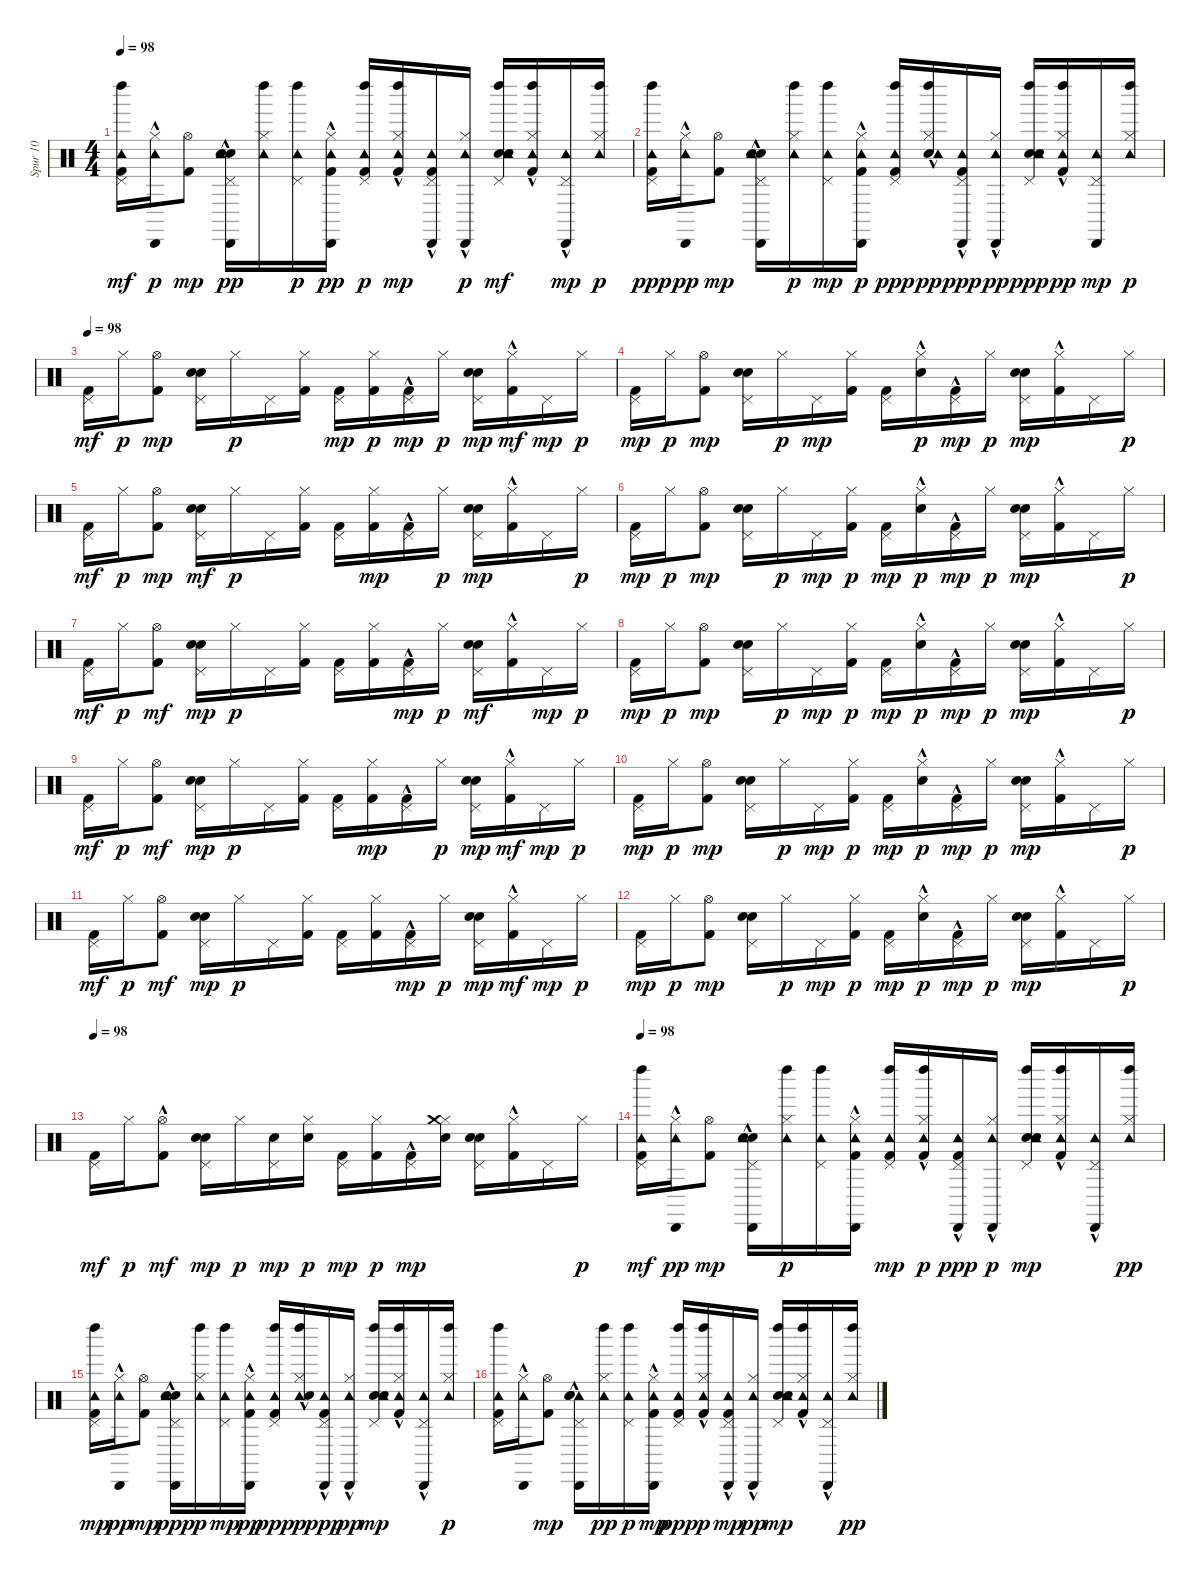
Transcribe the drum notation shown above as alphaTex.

\track ("Spur 10" "Spur 10") {instrument percussion}
\staff {score}
\articulation defaults
\ts (4 4)
\tempo 98
\clef neutral
\ks c
("Left Maraca (hit)" "Tambourine (hit)" "Kick (hit) 2" "Pedal Hi-Hat (hit)").16{dy mf} ("Tambourine (hit)"{hac} "Cabasa (hit)"{hac} "Hi-Hat (closed)").16{dy p} ("Kick (hit) 2" "Hi-Hat (open)").8{dy mp} ("Hand Clap (hit)" "Snare (hit) 2" "Pedal Hi-Hat (hit)" "Tambourine (hit)" "Cabasa (hit)"{hac}).16{dy pp} ("Hi-Hat (closed)" "Left Maraca (hit)" "Tambourine (hit)").16 ("Left Maraca (hit)" "Tambourine (hit)" "Pedal Hi-Hat (hit)").16{dy p} ("Kick (hit) 2" "Cabasa (hit)"{hac} "Hi-Hat (closed)" "Tambourine (hit)").16{dy pp} ("Kick (hit) 2" "Tambourine (hit)" "Pedal Hi-Hat (hit)" "Left Maraca (hit)").16{dy p} ("Left Maraca (hit)"{hac} "Hi-Hat (closed)" "Tambourine (hit)" "Kick (hit) 2").16{dy mp} ("Cabasa (hit)" "Kick (hit) 2"{hac} "Tambourine (hit)" "Pedal Hi-Hat (hit)").16 ("Tambourine (hit)" "Cabasa (hit)"{hac} "Hi-Hat (closed)").16{dy p} ("Left Maraca (hit)" "Hand Clap (hit)" "Tambourine (hit)" "Pedal Hi-Hat (hit)" "Snare (hit) 2").16{dy mf} ("Left Maraca (hit)" "Tambourine (hit)" "Hi-Hat (closed)" "Kick (hit) 2"{hac}).16 ("Tambourine (hit)" "Cabasa (hit)"{hac} "Pedal Hi-Hat (hit)").16{dy mp} ("Tambourine (hit)" "Hi-Hat (closed)" "Left Maraca (hit)").16{dy p} |
("Kick (hit) 2" "Left Maraca (hit)" "Pedal Hi-Hat (hit)" "Tambourine (hit)").16{dy ppp} ("Tambourine (hit)"{hac} "Hi-Hat (closed)" "Cabasa (hit)"{hac}).16{dy pp} ("Hi-Hat (open)" "Kick (hit) 2").8{dy mp} ("Snare (hit) 2" "Cabasa (hit)"{hac} "Hand Clap (hit)" "Tambourine (hit)" "Pedal Hi-Hat (hit)").16 ("Left Maraca (hit)" "Tambourine (hit)" "Hi-Hat (closed)").16{dy p} ("Left Maraca (hit)" "Tambourine (hit)" "Pedal Hi-Hat (hit)").16{dy mp} ("Cabasa (hit)"{hac} "Kick (hit) 2" "Tambourine (hit)" "Hi-Hat (closed)").16{dy p} ("Left Maraca (hit)" "Kick (hit) 2" "Pedal Hi-Hat (hit)" "Tambourine (hit)").16{dy ppp} ("Snare (hit) 2"{hac} "Left Maraca (hit)"{hac} "Hi-Hat (closed)" "Tambourine (hit)").16{dy pp} ("Kick (hit) 2"{hac} "Cabasa (hit)" "Pedal Hi-Hat (hit)" "Tambourine (hit)").16{dy ppp} ("Cabasa (hit)"{hac} "Hi-Hat (closed)" "Tambourine (hit)").16{dy pp} ("Hand Clap (hit)" "Left Maraca (hit)" "Snare (hit) 2" "Pedal Hi-Hat (hit)" "Tambourine (hit)").16{dy ppp} ("Hi-Hat (closed)" "Left Maraca (hit)" "Kick (hit) 2"{hac} "Tambourine (hit)").16{dy pp} ("Cabasa (hit)" "Tambourine (hit)" "Pedal Hi-Hat (hit)").16{dy mp} ("Left Maraca (hit)" "Tambourine (hit)" "Hi-Hat (closed)").16{dy p} |
\tempo 98
("Kick (hit) 2" "Pedal Hi-Hat (hit)").16{dy mf} "Hi-Hat (closed)".16{dy p} ("Kick (hit) 2" "Hi-Hat (open)").8{dy mp} ("Snare (hit) 2" "Pedal Hi-Hat (hit)" "Hand Clap (hit)").16 "Hi-Hat (closed)".16{dy p} "Pedal Hi-Hat (hit)".16 ("Kick (hit) 2" "Hi-Hat (closed)").16 ("Pedal Hi-Hat (hit)" "Kick (hit) 2").16{dy mp} ("Kick (hit) 2" "Hi-Hat (closed)").16{dy p} ("Kick (hit) 2"{hac} "Pedal Hi-Hat (hit)").16{dy mp} "Hi-Hat (closed)".16{dy p} ("Snare (hit) 2" "Pedal Hi-Hat (hit)" "Hand Clap (hit)").16{dy mp} ("Hi-Hat (closed)" "Kick (hit) 2"{hac}).16{dy mf} "Pedal Hi-Hat (hit)".16{dy mp} "Hi-Hat (closed)".16{dy p} |
("Kick (hit) 2" "Pedal Hi-Hat (hit)").16{dy mp} "Hi-Hat (closed)".16{dy p} ("Kick (hit) 2" "Hi-Hat (open)").8{dy mp} ("Snare (hit) 2" "Pedal Hi-Hat (hit)" "Hand Clap (hit)").16 "Hi-Hat (closed)".16{dy p} "Pedal Hi-Hat (hit)".16{dy mp} ("Hi-Hat (closed)" "Kick (hit) 2").16 ("Pedal Hi-Hat (hit)" "Kick (hit) 2").16 ("Hi-Hat (closed)" "Snare (hit) 2"{hac}).16{dy p} ("Kick (hit) 2"{hac} "Pedal Hi-Hat (hit)").16{dy mp} "Hi-Hat (closed)".16{dy p} ("Snare (hit) 2" "Hand Clap (hit)" "Pedal Hi-Hat (hit)").16{dy mp} ("Kick (hit) 2"{hac} "Hi-Hat (closed)").16 "Pedal Hi-Hat (hit)".16 "Hi-Hat (closed)".16{dy p} |
("Kick (hit) 2" "Pedal Hi-Hat (hit)").16{dy mf} "Hi-Hat (closed)".16{dy p} ("Kick (hit) 2" "Hi-Hat (open)").8{dy mp} ("Hand Clap (hit)" "Pedal Hi-Hat (hit)" "Snare (hit) 2").16{dy mf} "Hi-Hat (closed)".16{dy p} "Pedal Hi-Hat (hit)".16 ("Kick (hit) 2" "Hi-Hat (closed)").16 ("Kick (hit) 2" "Pedal Hi-Hat (hit)").16 ("Hi-Hat (closed)" "Kick (hit) 2").16{dy mp} ("Kick (hit) 2"{hac} "Pedal Hi-Hat (hit)").16 "Hi-Hat (closed)".16{dy p} ("Hand Clap (hit)" "Snare (hit) 2" "Pedal Hi-Hat (hit)").16{dy mp} ("Kick (hit) 2"{hac} "Hi-Hat (closed)").16 "Pedal Hi-Hat (hit)".16 "Hi-Hat (closed)".16{dy p} |
("Kick (hit) 2" "Pedal Hi-Hat (hit)").16{dy mp} "Hi-Hat (closed)".16{dy p} ("Hi-Hat (open)" "Kick (hit) 2").8{dy mp} ("Snare (hit) 2" "Hand Clap (hit)" "Pedal Hi-Hat (hit)").16 "Hi-Hat (closed)".16{dy p} "Pedal Hi-Hat (hit)".16{dy mp} ("Kick (hit) 2" "Hi-Hat (closed)").16{dy p} ("Kick (hit) 2" "Pedal Hi-Hat (hit)").16{dy mp} ("Hi-Hat (closed)" "Snare (hit) 2"{hac}).16{dy p} ("Kick (hit) 2"{hac} "Pedal Hi-Hat (hit)").16{dy mp} "Hi-Hat (closed)".16{dy p} ("Pedal Hi-Hat (hit)" "Hand Clap (hit)" "Snare (hit) 2").16{dy mp} ("Hi-Hat (closed)" "Kick (hit) 2"{hac}).16 "Pedal Hi-Hat (hit)".16 "Hi-Hat (closed)".16{dy p} |
("Kick (hit) 2" "Pedal Hi-Hat (hit)").16{dy mf} "Hi-Hat (closed)".16{dy p} ("Hi-Hat (open)" "Kick (hit) 2").8{dy mf} ("Snare (hit) 2" "Hand Clap (hit)" "Pedal Hi-Hat (hit)").16{dy mp} "Hi-Hat (closed)".16{dy p} "Pedal Hi-Hat (hit)".16 ("Kick (hit) 2" "Hi-Hat (closed)").16 ("Kick (hit) 2" "Pedal Hi-Hat (hit)").16 ("Kick (hit) 2" "Hi-Hat (closed)").16 ("Kick (hit) 2"{hac} "Pedal Hi-Hat (hit)").16{dy mp} "Hi-Hat (closed)".16{dy p} ("Hand Clap (hit)" "Pedal Hi-Hat (hit)" "Snare (hit) 2").16{dy mf} ("Hi-Hat (closed)" "Kick (hit) 2"{hac}).16 "Pedal Hi-Hat (hit)".16{dy mp} "Hi-Hat (closed)".16{dy p} |
("Kick (hit) 2" "Pedal Hi-Hat (hit)").16{dy mp} "Hi-Hat (closed)".16{dy p} ("Kick (hit) 2" "Hi-Hat (open)").8{dy mp} ("Snare (hit) 2" "Hand Clap (hit)" "Pedal Hi-Hat (hit)").16 "Hi-Hat (closed)".16{dy p} "Pedal Hi-Hat (hit)".16{dy mp} ("Kick (hit) 2" "Hi-Hat (closed)").16{dy p} ("Kick (hit) 2" "Pedal Hi-Hat (hit)").16{dy mp} ("Hi-Hat (closed)" "Snare (hit) 2"{hac}).16{dy p} ("Kick (hit) 2"{hac} "Pedal Hi-Hat (hit)").16{dy mp} "Hi-Hat (closed)".16{dy p} ("Hand Clap (hit)" "Snare (hit) 2" "Pedal Hi-Hat (hit)").16{dy mp} ("Hi-Hat (closed)" "Kick (hit) 2"{hac}).16 "Pedal Hi-Hat (hit)".16 "Hi-Hat (closed)".16{dy p} |
("Pedal Hi-Hat (hit)" "Kick (hit) 2").16{dy mf} "Hi-Hat (closed)".16{dy p} ("Hi-Hat (open)" "Kick (hit) 2").8{dy mf} ("Pedal Hi-Hat (hit)" "Snare (hit) 2" "Hand Clap (hit)").16{dy mp} "Hi-Hat (closed)".16{dy p} "Pedal Hi-Hat (hit)".16 ("Kick (hit) 2" "Hi-Hat (closed)").16 ("Kick (hit) 2" "Pedal Hi-Hat (hit)").16 ("Hi-Hat (closed)" "Kick (hit) 2").16{dy mp} ("Pedal Hi-Hat (hit)" "Kick (hit) 2"{hac}).16 "Hi-Hat (closed)".16{dy p} ("Hand Clap (hit)" "Snare (hit) 2" "Pedal Hi-Hat (hit)").16{dy mp} ("Hi-Hat (closed)" "Kick (hit) 2"{hac}).16{dy mf} "Pedal Hi-Hat (hit)".16{dy mp} "Hi-Hat (closed)".16{dy p} |
("Pedal Hi-Hat (hit)" "Kick (hit) 2").16{dy mp} "Hi-Hat (closed)".16{dy p} ("Kick (hit) 2" "Hi-Hat (open)").8{dy mp} ("Snare (hit) 2" "Hand Clap (hit)" "Pedal Hi-Hat (hit)").16 "Hi-Hat (closed)".16{dy p} "Pedal Hi-Hat (hit)".16{dy mp} ("Kick (hit) 2" "Hi-Hat (closed)").16{dy p} ("Pedal Hi-Hat (hit)" "Kick (hit) 2").16{dy mp} ("Hi-Hat (closed)" "Snare (hit) 2"{hac}).16{dy p} ("Pedal Hi-Hat (hit)" "Kick (hit) 2"{hac}).16{dy mp} "Hi-Hat (closed)".16{dy p} ("Hand Clap (hit)" "Snare (hit) 2" "Pedal Hi-Hat (hit)").16{dy mp} ("Hi-Hat (closed)" "Kick (hit) 2"{hac}).16 "Pedal Hi-Hat (hit)".16 "Hi-Hat (closed)".16{dy p} |
("Pedal Hi-Hat (hit)" "Kick (hit) 2").16{dy mf} "Hi-Hat (closed)".16{dy p} ("Hi-Hat (open)" "Kick (hit) 2").8{dy mf} ("Snare (hit) 2" "Hand Clap (hit)" "Pedal Hi-Hat (hit)").16{dy mp} "Hi-Hat (closed)".16{dy p} "Pedal Hi-Hat (hit)".16 ("Kick (hit) 2" "Hi-Hat (closed)").16 ("Kick (hit) 2" "Pedal Hi-Hat (hit)").16 ("Kick (hit) 2" "Hi-Hat (closed)").16 ("Kick (hit) 2"{hac} "Pedal Hi-Hat (hit)").16{dy mp} "Hi-Hat (closed)".16{dy p} ("Snare (hit) 2" "Pedal Hi-Hat (hit)" "Hand Clap (hit)").16{dy mp} ("Hi-Hat (closed)" "Kick (hit) 2"{hac}).16{dy mf} "Pedal Hi-Hat (hit)".16{dy mp} "Hi-Hat (closed)".16{dy p} |
("Kick (hit) 2" "Pedal Hi-Hat (hit)").16{dy mp} "Hi-Hat (closed)".16{dy p} ("Hi-Hat (open)" "Kick (hit) 2").8{dy mp} ("Snare (hit) 2" "Hand Clap (hit)" "Pedal Hi-Hat (hit)").16 "Hi-Hat (closed)".16{dy p} "Pedal Hi-Hat (hit)".16{dy mp} ("Kick (hit) 2" "Hi-Hat (closed)").16{dy p} ("Pedal Hi-Hat (hit)" "Kick (hit) 2").16{dy mp} ("Hi-Hat (closed)" "Snare (hit) 2"{hac}).16{dy p} ("Pedal Hi-Hat (hit)" "Kick (hit) 2"{hac}).16{dy mp} "Hi-Hat (closed)".16{dy p} ("Hand Clap (hit)" "Snare (hit) 2" "Pedal Hi-Hat (hit)").16{dy mp} ("Kick (hit) 2"{hac} "Hi-Hat (closed)").16 "Pedal Hi-Hat (hit)".16 "Hi-Hat (closed)".16{dy p} |
\tempo 98
("Kick (hit) 2" "Pedal Hi-Hat (hit)").16{dy mf} "Hi-Hat (closed)".16{dy p} ("Hi-Hat (open)" "Kick (hit) 2"{hac}).8{dy mf} ("Snare (hit) 2" "Hand Clap (hit)" "Pedal Hi-Hat (hit)").16{dy mp} "Hi-Hat (closed)".16{dy p} ("Pedal Hi-Hat (hit)" "Electric Snare (hit)").16{dy mp} ("Hi-Hat (closed)" "Electric Snare (hit)").16{dy p} ("Pedal Hi-Hat (hit)" "Kick (hit) 2").16{dy mp} ("Kick (hit) 2" "Hi-Hat (closed)").16{dy p} ("Kick (hit) 2"{hac} "Pedal Hi-Hat (hit)").16{dy mp} ("Hi-Hat (closed)" "Electric Snare (hit)" "Crash medium (hit)").16 ("Snare (hit) 2" "Pedal Hi-Hat (hit)" "Hand Clap (hit)").16 ("Kick (hit) 2"{hac} "Hi-Hat (closed)").16 "Pedal Hi-Hat (hit)".16 "Hi-Hat (closed)".16{dy p} |
\tempo 98
("Tambourine (hit)" "Pedal Hi-Hat (hit)" "Left Maraca (hit)" "Kick (hit) 2").16{dy mf} ("Tambourine (hit)"{hac} "Hi-Hat (closed)" "Cabasa (hit)"{hac}).16{dy pp} ("Kick (hit) 2" "Hi-Hat (open)").8{dy mp} ("Cabasa (hit)"{hac} "Snare (hit) 2" "Hand Clap (hit)" "Tambourine (hit)" "Pedal Hi-Hat (hit)").16 ("Left Maraca (hit)" "Tambourine (hit)" "Hi-Hat (closed)").16{dy p} ("Left Maraca (hit)" "Tambourine (hit)" "Pedal Hi-Hat (hit)").16 ("Cabasa (hit)"{hac} "Kick (hit) 2" "Tambourine (hit)" "Hi-Hat (closed)").16 ("Left Maraca (hit)" "Tambourine (hit)" "Pedal Hi-Hat (hit)" "Kick (hit) 2").16{dy mp} ("Left Maraca (hit)"{hac} "Tambourine (hit)" "Kick (hit) 2" "Hi-Hat (closed)").16{dy p} ("Pedal Hi-Hat (hit)" "Cabasa (hit)" "Kick (hit) 2"{hac} "Tambourine (hit)").16{dy ppp} ("Tambourine (hit)" "Cabasa (hit)"{hac} "Hi-Hat (closed)").16{dy p} ("Snare (hit) 2" "Left Maraca (hit)" "Tambourine (hit)" "Hand Clap (hit)" "Pedal Hi-Hat (hit)").16{dy mp} ("Tambourine (hit)" "Left Maraca (hit)" "Kick (hit) 2"{hac} "Hi-Hat (closed)").16 ("Cabasa (hit)"{hac} "Tambourine (hit)" "Pedal Hi-Hat (hit)").16 ("Left Maraca (hit)" "Hi-Hat (closed)" "Tambourine (hit)").16{dy pp} |
("Tambourine (hit)" "Left Maraca (hit)" "Kick (hit) 2" "Pedal Hi-Hat (hit)").16{dy mp} ("Cabasa (hit)"{hac} "Hi-Hat (closed)" "Tambourine (hit)"{hac}).16{dy pp} ("Kick (hit) 2" "Hi-Hat (open)").8{dy mp} ("Pedal Hi-Hat (hit)" "Cabasa (hit)"{hac} "Snare (hit) 2" "Hand Clap (hit)" "Tambourine (hit)").16{dy ppp} ("Left Maraca (hit)" "Tambourine (hit)" "Hi-Hat (closed)").16{dy p} ("Left Maraca (hit)" "Tambourine (hit)" "Pedal Hi-Hat (hit)").16{dy mp} ("Hi-Hat (closed)" "Cabasa (hit)"{hac} "Kick (hit) 2" "Tambourine (hit)").16{dy pp} ("Kick (hit) 2" "Left Maraca (hit)" "Pedal Hi-Hat (hit)" "Tambourine (hit)").16{dy ppp} ("Left Maraca (hit)"{hac} "Tambourine (hit)" "Snare (hit) 2"{hac} "Hi-Hat (closed)").16{dy p} ("Pedal Hi-Hat (hit)" "Cabasa (hit)" "Kick (hit) 2"{hac} "Tambourine (hit)").16{dy ppp} ("Tambourine (hit)" "Hi-Hat (closed)" "Cabasa (hit)"{hac}).16{dy pp} ("Snare (hit) 2" "Left Maraca (hit)" "Hand Clap (hit)" "Tambourine (hit)" "Pedal Hi-Hat (hit)").16{dy mp} ("Left Maraca (hit)" "Kick (hit) 2"{hac} "Tambourine (hit)" "Hi-Hat (closed)").16 ("Cabasa (hit)"{hac} "Tambourine (hit)" "Pedal Hi-Hat (hit)").16 ("Left Maraca (hit)" "Tambourine (hit)" "Hi-Hat (closed)").16{dy p} |
("Left Maraca (hit)" "Kick (hit) 2" "Pedal Hi-Hat (hit)" "Tambourine (hit)").16 ("Tambourine (hit)"{hac} "Cabasa (hit)"{hac} "Hi-Hat (closed)").16 ("Kick (hit) 2" "Hi-Hat (open)").8{dy mp} ("Tambourine (hit)" "Hand Clap (hit)" "Cabasa (hit)"{hac} "Snare (hit) 2" "Pedal Hi-Hat (hit)").16 ("Left Maraca (hit)" "Hi-Hat (closed)" "Tambourine (hit)").16{dy pp} ("Left Maraca (hit)" "Tambourine (hit)" "Pedal Hi-Hat (hit)").16{dy p} ("Tambourine (hit)" "Hi-Hat (closed)" "Cabasa (hit)"{hac} "Kick (hit) 2").16{dy mp} ("Kick (hit) 2" "Left Maraca (hit)" "Pedal Hi-Hat (hit)" "Tambourine (hit)").16{dy ppp} ("Left Maraca (hit)"{hac} "Kick (hit) 2" "Tambourine (hit)" "Hi-Hat (closed)").16{dy p} ("Kick (hit) 2"{hac} "Cabasa (hit)" "Tambourine (hit)" "Pedal Hi-Hat (hit)").16{dy mp} ("Tambourine (hit)" "Hi-Hat (closed)" "Cabasa (hit)"{hac}).16{dy pp} ("Pedal Hi-Hat (hit)" "Snare (hit) 2" "Left Maraca (hit)" "Tambourine (hit)" "Hand Clap (hit)").16{dy mp} ("Left Maraca (hit)" "Tambourine (hit)" "Kick (hit) 2"{hac} "Hi-Hat (closed)").16 ("Tambourine (hit)" "Cabasa (hit)"{hac} "Pedal Hi-Hat (hit)").16 ("Left Maraca (hit)" "Hi-Hat (closed)" "Tambourine (hit)").16{dy pp}
